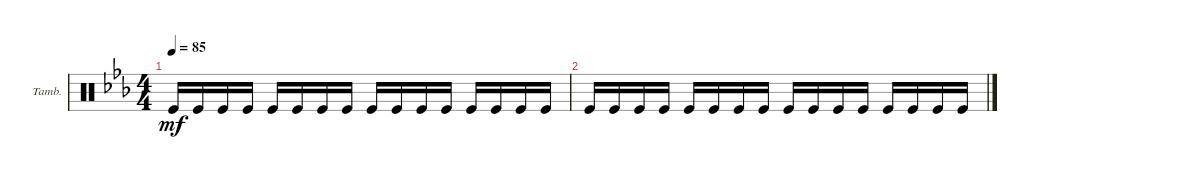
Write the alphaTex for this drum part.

\defaultSystemsLayout 4
\bracketExtendMode groupsimilarinstruments
\firstSystemTrackNameOrientation horizontal
\otherSystemsTrackNameOrientation horizontal
\track ("Tambourine" "Tamb.") {instrument percussion}
\staff {score}
\articulation defaults
\ts (4 4)
\tempo 85
\clef neutral
\ks eb "Kick (hit)".16{dy mf} "Kick (hit)".16 "Kick (hit)".16 "Kick (hit)".16 "Kick (hit)".16 "Kick (hit)".16 "Kick (hit)".16 "Kick (hit)".16 "Kick (hit)".16 "Kick (hit)".16 "Kick (hit)".16 "Kick (hit)".16 "Kick (hit)".16 "Kick (hit)".16 "Kick (hit)".16 "Kick (hit)".16
|
"Kick (hit)".16 "Kick (hit)".16 "Kick (hit)".16 "Kick (hit)".16 "Kick (hit)".16 "Kick (hit)".16 "Kick (hit)".16 "Kick (hit)".16 "Kick (hit)".16 "Kick (hit)".16 "Kick (hit)".16 "Kick (hit)".16 "Kick (hit)".16 "Kick (hit)".16 "Kick (hit)".16 "Kick (hit)".16
